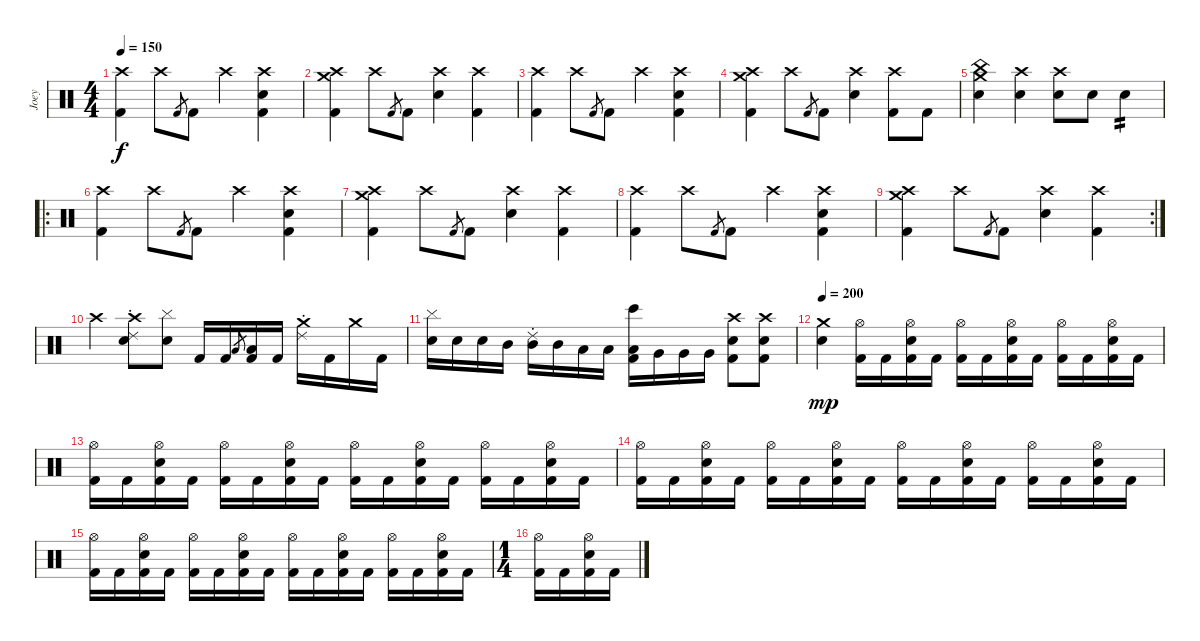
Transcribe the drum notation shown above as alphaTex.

\track ("Joey" "Joey") {instrument percussion}
\staff {score}
\articulation defaults
\ts (4 4)
\tempo 150
\clef neutral
\ks c
("Crash high (hit)" "Kick (hit) 2").4{dy f} "Crash high (hit)".8 "Kick (hit) 2".8{gr} "Kick (hit) 2".8 "Crash high (hit)".4 ("Crash high (hit)" "Electric Snare (hit)" "Kick (hit) 2").4 |
("Crash high (hit)" "Crash medium (hit)" "Kick (hit) 2").4 "Crash high (hit)".8 "Kick (hit) 2".8{gr} "Kick (hit) 2".8 ("Crash high (hit)" "Electric Snare (hit)").4 ("Crash high (hit)" "Kick (hit) 2").4 |
("Crash high (hit)" "Kick (hit) 2").4 "Crash high (hit)".8 "Kick (hit) 2".8{gr} "Kick (hit) 2".8 "Crash high (hit)".4 ("Crash high (hit)" "Electric Snare (hit)" "Kick (hit) 2").4 |
("Crash high (hit)" "Crash medium (hit)" "Kick (hit) 2").4 "Crash high (hit)".8 "Kick (hit) 2".8{gr} "Kick (hit) 2".8 ("Crash high (hit)" "Electric Snare (hit)").4 ("Crash high (hit)" "Kick (hit) 2").8 "Kick (hit) 2".8 |
("China (hit)" "Crash medium (hit)" "Electric Snare (hit)").4 ("Crash high (hit)" "Electric Snare (hit)").4 ("Crash high (hit)" "Electric Snare (hit)").8 "Electric Snare (hit)".8 "Electric Snare (hit)".4{tp 2} |
\ro
("Crash high (hit)" "Kick (hit) 2").4 "Crash high (hit)".8 "Kick (hit) 2".8{gr} "Kick (hit) 2".8 "Crash high (hit)".4 ("Crash high (hit)" "Electric Snare (hit)" "Kick (hit) 2").4 |
("Crash high (hit)" "Crash medium (hit)" "Kick (hit) 2").4 "Crash high (hit)".8 "Kick (hit) 2".8{gr} "Kick (hit) 2".8 ("Crash high (hit)" "Electric Snare (hit)").4 ("Crash high (hit)" "Kick (hit) 2").4 |
("Crash high (hit)" "Kick (hit) 2").4 "Crash high (hit)".8 "Kick (hit) 2".8{gr} "Kick (hit) 2".8 "Crash high (hit)".4 ("Crash high (hit)" "Electric Snare (hit)" "Kick (hit) 2").4 |
\rc 2
("Crash high (hit)" "Crash medium (hit)" "Kick (hit) 2").4 "Crash high (hit)".8 "Kick (hit) 2".8{gr} "Kick (hit) 2".8 ("Crash high (hit)" "Electric Snare (hit)").4 ("Crash high (hit)" "Kick (hit) 2").4 |
"Crash high (hit)".4 ("Crash high (hit)" "Ride (choke) 2" "Electric Snare (hit)").8 ("Cymbal (hit)" "Electric Snare (hit)").8 "Kick (hit) 2".16 "Kick (hit) 2".16 "Low Tom (hit)".8{gr} ("Low Tom (hit)" "Kick (hit) 2").16 "Kick (hit) 2".16 ("Crash medium (hit)" "Ride (choke) 2").16 "Kick (hit) 2".16 "Crash medium (hit)".16 "Kick (hit) 2".16 |
("Cymbal (hit)" "Electric Snare (hit)").16 "Electric Snare (hit)".16 "Electric Snare (hit)".16 "Mid Tom (hit)".16 ("Ride (choke) 2" "Mid Tom (hit)").16 "Mid Tom (hit)".16 "Low Tom (hit)".16 "Low Tom (hit)".16 ("Bongo High (hit)" "Low Tom (hit)" "Kick (hit) 2").16 "Very Low Tom (hit)".16 "Very Low Tom (hit)".16 "Very Low Tom (hit)".16 ("Crash high (hit)" "Electric Snare (hit)" "Kick (hit) 2").8 ("Crash high (hit)" "Electric Snare (hit)" "Kick (hit) 2").8 |
\tempo 200
("Crash medium (hit)" "Electric Snare (hit)").4{dy mp} ("Hi-Hat (open)" "Kick (hit) 2").16 "Kick (hit) 2".16 ("Hi-Hat (open)" "Electric Snare (hit)" "Kick (hit) 2").16 "Kick (hit) 2".16 ("Hi-Hat (open)" "Kick (hit) 2").16 "Kick (hit) 2".16 ("Hi-Hat (open)" "Electric Snare (hit)" "Kick (hit) 2").16 "Kick (hit) 2".16 ("Hi-Hat (open)" "Kick (hit) 2").16 "Kick (hit) 2".16 ("Hi-Hat (open)" "Electric Snare (hit)" "Kick (hit) 2").16 "Kick (hit) 2".16 |
("Hi-Hat (open)" "Kick (hit) 2").16 "Kick (hit) 2".16 ("Hi-Hat (open)" "Electric Snare (hit)" "Kick (hit) 2").16 "Kick (hit) 2".16 ("Hi-Hat (open)" "Kick (hit) 2").16 "Kick (hit) 2".16 ("Hi-Hat (open)" "Electric Snare (hit)" "Kick (hit) 2").16 "Kick (hit) 2".16 ("Hi-Hat (open)" "Kick (hit) 2").16 "Kick (hit) 2".16 ("Hi-Hat (open)" "Electric Snare (hit)" "Kick (hit) 2").16 "Kick (hit) 2".16 ("Hi-Hat (open)" "Kick (hit) 2").16 "Kick (hit) 2".16 ("Hi-Hat (open)" "Electric Snare (hit)" "Kick (hit) 2").16 "Kick (hit) 2".16 |
("Hi-Hat (open)" "Kick (hit) 2").16 "Kick (hit) 2".16 ("Hi-Hat (open)" "Electric Snare (hit)" "Kick (hit) 2").16 "Kick (hit) 2".16 ("Hi-Hat (open)" "Kick (hit) 2").16 "Kick (hit) 2".16 ("Hi-Hat (open)" "Electric Snare (hit)" "Kick (hit) 2").16 "Kick (hit) 2".16 ("Hi-Hat (open)" "Kick (hit) 2").16 "Kick (hit) 2".16 ("Hi-Hat (open)" "Electric Snare (hit)" "Kick (hit) 2").16 "Kick (hit) 2".16 ("Hi-Hat (open)" "Kick (hit) 2").16 "Kick (hit) 2".16 ("Hi-Hat (open)" "Electric Snare (hit)" "Kick (hit) 2").16 "Kick (hit) 2".16 |
("Hi-Hat (open)" "Kick (hit) 2").16 "Kick (hit) 2".16 ("Hi-Hat (open)" "Electric Snare (hit)" "Kick (hit) 2").16 "Kick (hit) 2".16 ("Hi-Hat (open)" "Kick (hit) 2").16 "Kick (hit) 2".16 ("Hi-Hat (open)" "Electric Snare (hit)" "Kick (hit) 2").16 "Kick (hit) 2".16 ("Hi-Hat (open)" "Kick (hit) 2").16 "Kick (hit) 2".16 ("Hi-Hat (open)" "Electric Snare (hit)" "Kick (hit) 2").16 "Kick (hit) 2".16 ("Hi-Hat (open)" "Kick (hit) 2").16 "Kick (hit) 2".16 ("Hi-Hat (open)" "Electric Snare (hit)" "Kick (hit) 2").16 "Kick (hit) 2".16 |
\ts (1 4)
("Hi-Hat (open)" "Kick (hit) 2").16 "Kick (hit) 2".16 ("Hi-Hat (open)" "Electric Snare (hit)" "Kick (hit) 2").16 "Kick (hit) 2".16
